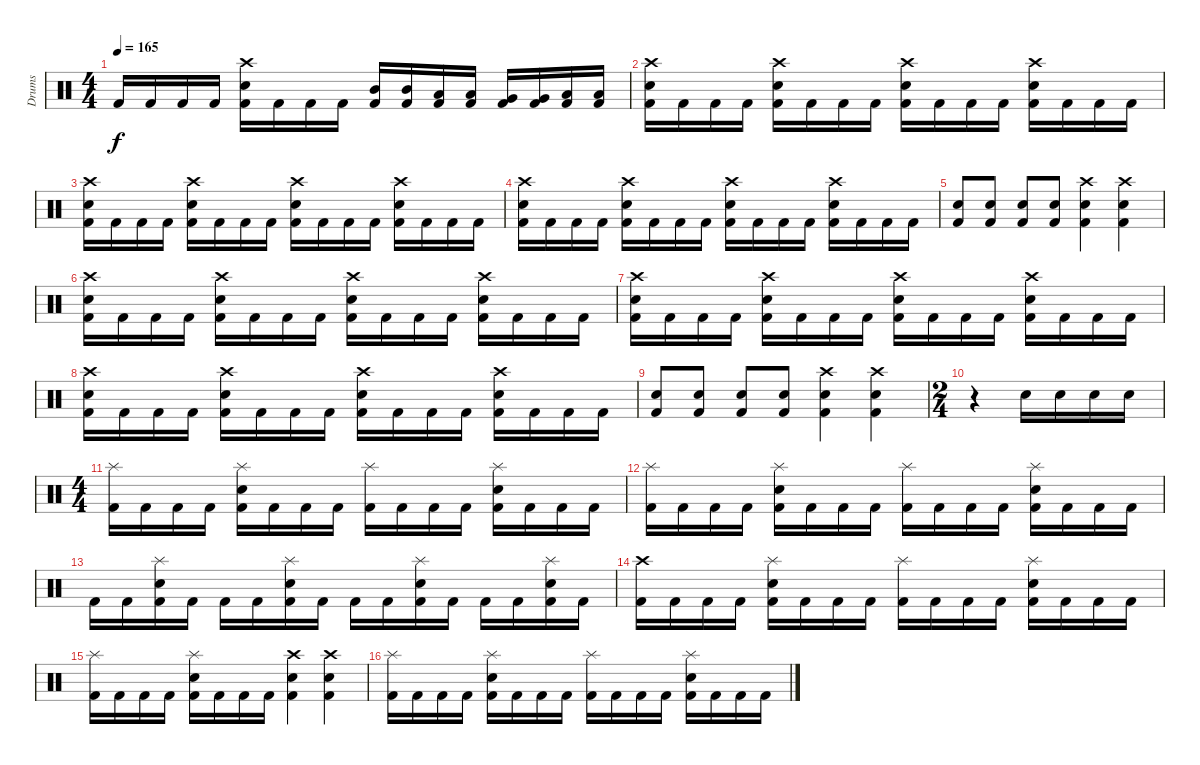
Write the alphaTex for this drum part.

\track ("Drums" "Drums") {instrument percussion}
\staff {score}
\articulation defaults
\ts (4 4)
\tempo 165
\clef neutral
\ks c "Kick (hit) 2".16{dy f} "Kick (hit) 2".16 "Kick (hit) 2".16 "Kick (hit) 2".16
("Kick (hit) 2" "Snare (hit) 2" "Crash high (hit)").16 "Kick (hit) 2".16 "Kick (hit) 2".16 "Kick (hit) 2".16 ("Kick (hit) 2" "Mid Tom (hit)").16 ("Kick (hit) 2" "Mid Tom (hit)").16 ("Kick (hit) 2" "Low Tom (hit)").16 ("Kick (hit) 2" "Low Tom (hit)").16 ("Kick (hit) 2" "Very Low Tom (hit)").16 ("Kick (hit) 2" "Very Low Tom (hit)").16 ("Kick (hit) 2" "Low Floor Tom (hit)").16 ("Kick (hit) 2" "Low Floor Tom (hit)").16 |
("Kick (hit) 2" "Snare (hit) 2" "Crash high (hit)").16 "Kick (hit) 2".16 "Kick (hit) 2".16 "Kick (hit) 2".16 ("Kick (hit) 2" "Snare (hit) 2" "Crash high (hit)").16 "Kick (hit) 2".16 "Kick (hit) 2".16 "Kick (hit) 2".16 ("Kick (hit) 2" "Snare (hit) 2" "Crash high (hit)").16 "Kick (hit) 2".16 "Kick (hit) 2".16 "Kick (hit) 2".16 ("Kick (hit) 2" "Snare (hit) 2" "Crash high (hit)").16 "Kick (hit) 2".16 "Kick (hit) 2".16 "Kick (hit) 2".16 |
("Kick (hit) 2" "Snare (hit) 2" "Crash high (hit)").16 "Kick (hit) 2".16 "Kick (hit) 2".16 "Kick (hit) 2".16 ("Kick (hit) 2" "Snare (hit) 2" "Crash high (hit)").16 "Kick (hit) 2".16 "Kick (hit) 2".16 "Kick (hit) 2".16 ("Kick (hit) 2" "Snare (hit) 2" "Crash high (hit)").16 "Kick (hit) 2".16 "Kick (hit) 2".16 "Kick (hit) 2".16 ("Kick (hit) 2" "Snare (hit) 2" "Crash high (hit)").16 "Kick (hit) 2".16 "Kick (hit) 2".16 "Kick (hit) 2".16 |
("Kick (hit) 2" "Snare (hit) 2" "Crash high (hit)").16 "Kick (hit) 2".16 "Kick (hit) 2".16 "Kick (hit) 2".16 ("Kick (hit) 2" "Snare (hit) 2" "Crash high (hit)").16 "Kick (hit) 2".16 "Kick (hit) 2".16 "Kick (hit) 2".16 ("Kick (hit) 2" "Snare (hit) 2" "Crash high (hit)").16 "Kick (hit) 2".16 "Kick (hit) 2".16 "Kick (hit) 2".16 ("Kick (hit) 2" "Snare (hit) 2" "Crash high (hit)").16 "Kick (hit) 2".16 "Kick (hit) 2".16 "Kick (hit) 2".16 |
("Kick (hit) 2" "Snare (hit) 2").8 ("Kick (hit) 2" "Snare (hit) 2").8 ("Kick (hit) 2" "Snare (hit) 2").8 ("Kick (hit) 2" "Snare (hit) 2").8 ("Kick (hit) 2" "Snare (hit) 2" "Crash high (hit)").4 ("Kick (hit) 2" "Snare (hit) 2" "Crash high (hit)").4 |
("Kick (hit) 2" "Snare (hit) 2" "Crash high (hit)").16 "Kick (hit) 2".16 "Kick (hit) 2".16 "Kick (hit) 2".16 ("Kick (hit) 2" "Snare (hit) 2" "Crash high (hit)").16 "Kick (hit) 2".16 "Kick (hit) 2".16 "Kick (hit) 2".16 ("Kick (hit) 2" "Snare (hit) 2" "Crash high (hit)").16 "Kick (hit) 2".16 "Kick (hit) 2".16 "Kick (hit) 2".16 ("Kick (hit) 2" "Snare (hit) 2" "Crash high (hit)").16 "Kick (hit) 2".16 "Kick (hit) 2".16 "Kick (hit) 2".16 |
("Kick (hit) 2" "Snare (hit) 2" "Crash high (hit)").16 "Kick (hit) 2".16 "Kick (hit) 2".16 "Kick (hit) 2".16 ("Kick (hit) 2" "Snare (hit) 2" "Crash high (hit)").16 "Kick (hit) 2".16 "Kick (hit) 2".16 "Kick (hit) 2".16 ("Kick (hit) 2" "Snare (hit) 2" "Crash high (hit)").16 "Kick (hit) 2".16 "Kick (hit) 2".16 "Kick (hit) 2".16 ("Kick (hit) 2" "Snare (hit) 2" "Crash high (hit)").16 "Kick (hit) 2".16 "Kick (hit) 2".16 "Kick (hit) 2".16 |
("Kick (hit) 2" "Snare (hit) 2" "Crash high (hit)").16 "Kick (hit) 2".16 "Kick (hit) 2".16 "Kick (hit) 2".16 ("Kick (hit) 2" "Snare (hit) 2" "Crash high (hit)").16 "Kick (hit) 2".16 "Kick (hit) 2".16 "Kick (hit) 2".16 ("Kick (hit) 2" "Snare (hit) 2" "Crash high (hit)").16 "Kick (hit) 2".16 "Kick (hit) 2".16 "Kick (hit) 2".16 ("Kick (hit) 2" "Snare (hit) 2" "Crash high (hit)").16 "Kick (hit) 2".16 "Kick (hit) 2".16 "Kick (hit) 2".16 |
("Kick (hit) 2" "Snare (hit) 2").8 ("Kick (hit) 2" "Snare (hit) 2").8 ("Kick (hit) 2" "Snare (hit) 2").8 ("Kick (hit) 2" "Snare (hit) 2").8 ("Kick (hit) 2" "Snare (hit) 2" "Crash high (hit)").4 ("Kick (hit) 2" "Snare (hit) 2" "Crash high (hit)").4 |
\ts (2 4)
r.4 "Snare (hit) 2".16 "Snare (hit) 2".16 "Snare (hit) 2".16 "Snare (hit) 2".16 |
\ts (4 4)
("Kick (hit) 2" "Splash (hit)").16 "Kick (hit) 2".16 "Kick (hit) 2".16 "Kick (hit) 2".16 ("Kick (hit) 2" "Snare (hit) 2" "Splash (hit)").16 "Kick (hit) 2".16 "Kick (hit) 2".16 "Kick (hit) 2".16 ("Kick (hit) 2" "Splash (hit)").16 "Kick (hit) 2".16 "Kick (hit) 2".16 "Kick (hit) 2".16 ("Kick (hit) 2" "Snare (hit) 2" "Splash (hit)").16 "Kick (hit) 2".16 "Kick (hit) 2".16 "Kick (hit) 2".16 |
("Kick (hit) 2" "Splash (hit)").16 "Kick (hit) 2".16 "Kick (hit) 2".16 "Kick (hit) 2".16 ("Kick (hit) 2" "Snare (hit) 2" "Splash (hit)").16 "Kick (hit) 2".16 "Kick (hit) 2".16 "Kick (hit) 2".16 ("Kick (hit) 2" "Splash (hit)").16 "Kick (hit) 2".16 "Kick (hit) 2".16 "Kick (hit) 2".16 ("Kick (hit) 2" "Snare (hit) 2" "Splash (hit)").16 "Kick (hit) 2".16 "Kick (hit) 2".16 "Kick (hit) 2".16 |
"Kick (hit) 2".16 "Kick (hit) 2".16 ("Kick (hit) 2" "Snare (hit) 2" "Splash (hit)").16 "Kick (hit) 2".16 "Kick (hit) 2".16 "Kick (hit) 2".16 ("Kick (hit) 2" "Snare (hit) 2" "Splash (hit)").16 "Kick (hit) 2".16 "Kick (hit) 2".16 "Kick (hit) 2".16 ("Kick (hit) 2" "Snare (hit) 2" "Splash (hit)").16 "Kick (hit) 2".16 "Kick (hit) 2".16 "Kick (hit) 2".16 ("Kick (hit) 2" "Snare (hit) 2" "Splash (hit)").16 "Kick (hit) 2".16 |
("Kick (hit) 2" "Crash high (hit)").16 "Kick (hit) 2".16 "Kick (hit) 2".16 "Kick (hit) 2".16 ("Kick (hit) 2" "Snare (hit) 2" "Splash (hit)").16 "Kick (hit) 2".16 "Kick (hit) 2".16 "Kick (hit) 2".16 ("Kick (hit) 2" "Splash (hit)").16 "Kick (hit) 2".16 "Kick (hit) 2".16 "Kick (hit) 2".16 ("Kick (hit) 2" "Snare (hit) 2" "Splash (hit)").16 "Kick (hit) 2".16 "Kick (hit) 2".16 "Kick (hit) 2".16 |
("Kick (hit) 2" "Splash (hit)").16 "Kick (hit) 2".16 "Kick (hit) 2".16 "Kick (hit) 2".16 ("Kick (hit) 2" "Snare (hit) 2" "Splash (hit)").16 "Kick (hit) 2".16 "Kick (hit) 2".16 "Kick (hit) 2".16 ("Kick (hit) 2" "Snare (hit) 2" "Crash high (hit)").4 ("Snare (hit) 2" "Kick (hit) 2" "Crash high (hit)").4 |
("Kick (hit) 2" "Splash (hit)").16 "Kick (hit) 2".16 "Kick (hit) 2".16 "Kick (hit) 2".16 ("Kick (hit) 2" "Snare (hit) 2" "Splash (hit)").16 "Kick (hit) 2".16 "Kick (hit) 2".16 "Kick (hit) 2".16 ("Kick (hit) 2" "Splash (hit)").16 "Kick (hit) 2".16 "Kick (hit) 2".16 "Kick (hit) 2".16 ("Kick (hit) 2" "Snare (hit) 2" "Splash (hit)").16 "Kick (hit) 2".16 "Kick (hit) 2".16 "Kick (hit) 2".16
